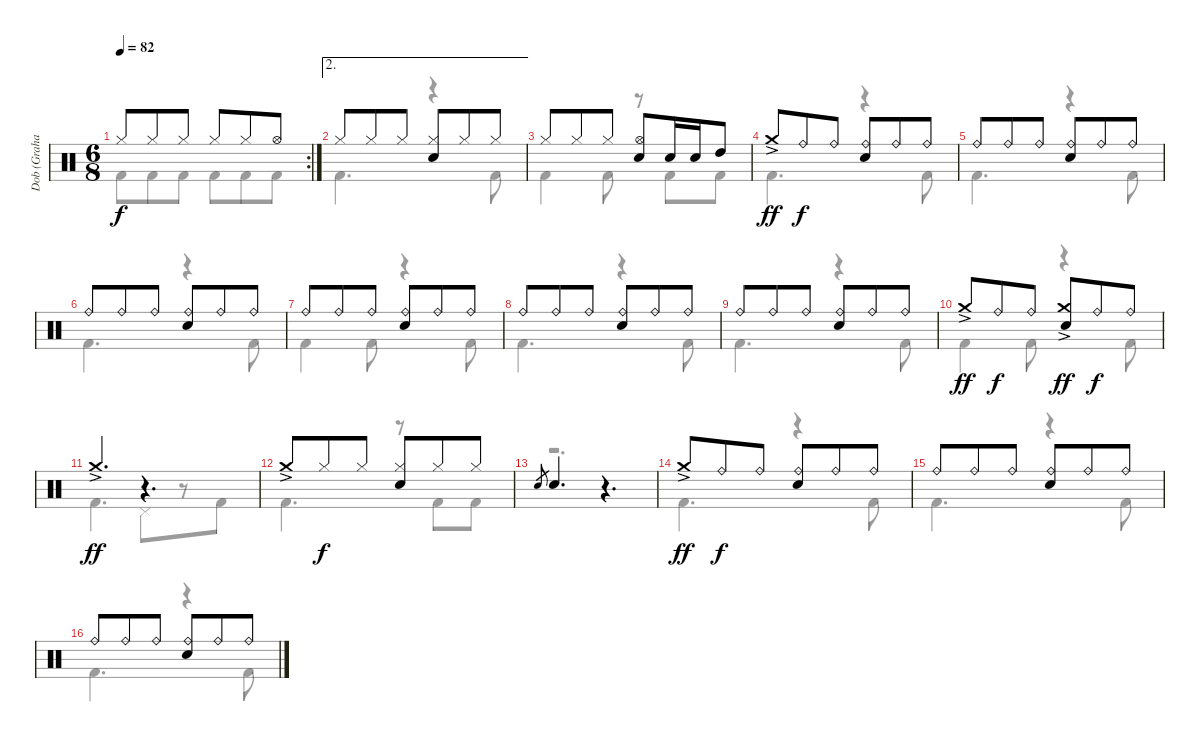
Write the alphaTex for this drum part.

\track ("Dob (Graham Walker)" "Dob (Graha") {instrument percussion}
\staff {score}
\articulation defaults
\voice
\rc 2
\ts (6 8)
\tempo 82
\clef neutral
\ks c "Hi-Hat (closed)".8{dy f} "Hi-Hat (closed)".8 "Hi-Hat (closed)".8 "Hi-Hat (closed)".8 "Hi-Hat (closed)".8 "Hi-Hat (open)".8
|
\ae 2 "Hi-Hat (closed)".8 "Hi-Hat (closed)".8 "Hi-Hat (closed)".8
("Hi-Hat (closed)" "Electric Snare (hit)").8 "Hi-Hat (closed)".8 "Hi-Hat (closed)".8 |
"Hi-Hat (closed)".8 "Hi-Hat (closed)".8 "Hi-Hat (closed)".8 ("Hi-Hat (open)" "Electric Snare (hit)").8 "Electric Snare (hit)".16 "Electric Snare (hit)".16 "High Tom (hit)".8 |
"Crash medium (hit)"{ac}.8{dy ff} "Ride (bell)".8{dy f} "Ride (bell)".8 ("Ride (bell)" "Electric Snare (hit)").8 "Ride (bell)".8 "Ride (bell)".8 |
"Ride (bell)".8 "Ride (bell)".8 "Ride (bell)".8 ("Ride (bell)" "Electric Snare (hit)").8 "Ride (bell)".8 "Ride (bell)".8 |
"Ride (bell)".8 "Ride (bell)".8 "Ride (bell)".8 ("Ride (bell)" "Electric Snare (hit)").8 "Ride (bell)".8 "Ride (bell)".8 |
"Ride (bell)".8 "Ride (bell)".8 "Ride (bell)".8 ("Ride (bell)" "Electric Snare (hit)").8 "Ride (bell)".8 "Ride (bell)".8 |
"Ride (bell)".8 "Ride (bell)".8 "Ride (bell)".8 ("Ride (bell)" "Electric Snare (hit)").8 "Ride (bell)".8 "Ride (bell)".8 |
"Ride (bell)".8 "Ride (bell)".8 "Ride (bell)".8 ("Ride (bell)" "Electric Snare (hit)").8 "Ride (bell)".8 "Ride (bell)".8 |
"Crash medium (hit)"{ac}.8{dy ff} "Ride (bell)".8{dy f} "Ride (bell)".8 ("Crash medium (hit)"{ac} "Electric Snare (hit)").8{dy ff} "Ride (bell)".8{dy f} "Ride (bell)".8 |
"Crash medium (hit)"{ac}.4{d dy ff} r.4{d} |
"Crash medium (hit)"{ac}.8 "Hi-Hat (closed)".8{dy f} "Hi-Hat (closed)".8 ("Hi-Hat (closed)" "Electric Snare (hit)").8 "Hi-Hat (closed)".8 "Hi-Hat (closed)".8 |
"Electric Snare (hit)".8{gr} "Electric Snare (hit)".4{d} r.4{d} |
"Crash medium (hit)"{ac}.8{dy ff} "Ride (bell)".8{dy f} "Ride (bell)".8 ("Ride (bell)" "Electric Snare (hit)").8 "Ride (bell)".8 "Ride (bell)".8 |
"Ride (bell)".8 "Ride (bell)".8 "Ride (bell)".8 ("Ride (bell)" "Electric Snare (hit)").8 "Ride (bell)".8 "Ride (bell)".8 |
"Ride (bell)".8 "Ride (bell)".8 "Ride (bell)".8 ("Ride (bell)" "Electric Snare (hit)").8 "Ride (bell)".8 "Ride (bell)".8
\voice
\clef neutral
\ottava regular
\simile none
\ks c "Kick (hit) 2".8{dy f} "Kick (hit) 2".8 "Kick (hit) 2".8 "Kick (hit) 2".8 "Kick (hit) 2".8 "Kick (hit) 2".8
|
"Kick (hit) 2".4{d} r.4 "Kick (hit) 2".8 |
"Kick (hit) 2".4 "Kick (hit) 2".8 r.8 "Kick (hit) 2".8 "Kick (hit) 2".8 |
"Kick (hit) 2".4{d} r.4 "Kick (hit) 2".8 |
"Kick (hit) 2".4{d} r.4 "Kick (hit) 2".8 |
"Kick (hit) 2".4{d} r.4 "Kick (hit) 2".8 |
"Kick (hit) 2".4 "Kick (hit) 2".8 r.4 "Kick (hit) 2".8 |
"Kick (hit) 2".4{d} r.4 "Kick (hit) 2".8 |
"Kick (hit) 2".4{d} r.4 "Kick (hit) 2".8 |
"Kick (hit) 2".4 "Kick (hit) 2".8 r.4 "Kick (hit) 2".8 |
"Kick (hit) 2".4{d} "Pedal Hi-Hat (hit)".8 r.8 "Kick (hit) 2".8 |
"Kick (hit) 2".4{d} r.8 "Kick (hit) 2".8 "Kick (hit) 2".8 |
r.2{d} |
"Kick (hit) 2".4{d} r.4 "Kick (hit) 2".8 |
"Kick (hit) 2".4{d} r.4 "Kick (hit) 2".8 |
"Kick (hit) 2".4{d} r.4 "Kick (hit) 2".8
